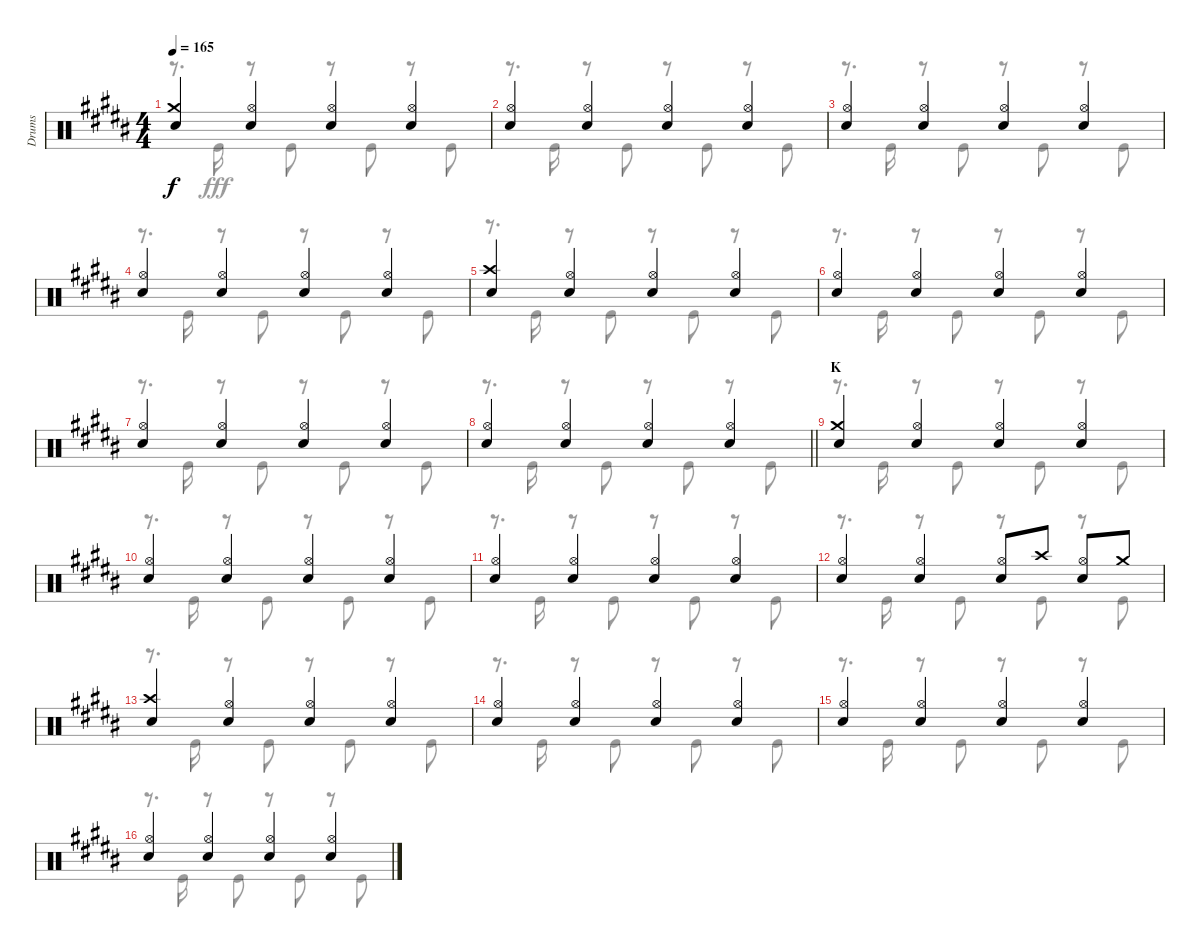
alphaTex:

\track ("Drums" "Drums") {instrument percussion}
\staff {score}
\articulation defaults
\voice
\ts (4 4)
\tempo 165
\clef neutral
\ks b
("Crash medium (hit)" "Snare (hit) 2").4{dy f} ("Hi-Hat (open)" "Snare (hit) 2").4 ("Hi-Hat (open)" "Snare (hit) 2").4 ("Hi-Hat (open)" "Snare (hit) 2").4 |
("Hi-Hat (open)" "Snare (hit) 2").4 ("Hi-Hat (open)" "Snare (hit) 2").4 ("Hi-Hat (open)" "Snare (hit) 2").4 ("Hi-Hat (open)" "Snare (hit) 2").4 |
("Hi-Hat (open)" "Snare (hit) 2").4 ("Hi-Hat (open)" "Snare (hit) 2").4 ("Hi-Hat (open)" "Snare (hit) 2").4 ("Hi-Hat (open)" "Snare (hit) 2").4 |
("Hi-Hat (open)" "Snare (hit) 2").4 ("Hi-Hat (open)" "Snare (hit) 2").4 ("Hi-Hat (open)" "Snare (hit) 2").4 ("Hi-Hat (open)" "Snare (hit) 2").4 |
("Crash high (hit)" "Snare (hit) 2").4 ("Hi-Hat (open)" "Snare (hit) 2").4 ("Hi-Hat (open)" "Snare (hit) 2").4 ("Hi-Hat (open)" "Snare (hit) 2").4 |
("Hi-Hat (open)" "Snare (hit) 2").4 ("Hi-Hat (open)" "Snare (hit) 2").4 ("Hi-Hat (open)" "Snare (hit) 2").4 ("Hi-Hat (open)" "Snare (hit) 2").4 |
("Hi-Hat (open)" "Snare (hit) 2").4 ("Hi-Hat (open)" "Snare (hit) 2").4 ("Hi-Hat (open)" "Snare (hit) 2").4 ("Hi-Hat (open)" "Snare (hit) 2").4 |
\barLineRight lightlight
("Hi-Hat (open)" "Snare (hit) 2").4 ("Hi-Hat (open)" "Snare (hit) 2").4 ("Hi-Hat (open)" "Snare (hit) 2").4 ("Hi-Hat (open)" "Snare (hit) 2").4 |
\section ("" "K")
("Crash medium (hit)" "Snare (hit) 2").4 ("Hi-Hat (open)" "Snare (hit) 2").4 ("Hi-Hat (open)" "Snare (hit) 2").4 ("Hi-Hat (open)" "Snare (hit) 2").4 |
("Hi-Hat (open)" "Snare (hit) 2").4 ("Hi-Hat (open)" "Snare (hit) 2").4 ("Hi-Hat (open)" "Snare (hit) 2").4 ("Hi-Hat (open)" "Snare (hit) 2").4 |
("Hi-Hat (open)" "Snare (hit) 2").4 ("Hi-Hat (open)" "Snare (hit) 2").4 ("Hi-Hat (open)" "Snare (hit) 2").4 ("Hi-Hat (open)" "Snare (hit) 2").4 |
("Hi-Hat (open)" "Snare (hit) 2").4 ("Hi-Hat (open)" "Snare (hit) 2").4 ("Hi-Hat (open)" "Snare (hit) 2").8 "Crash high (hit)".8 ("Hi-Hat (open)" "Snare (hit) 2").8 "Crash medium (hit)".8 |
("Crash high (hit)" "Snare (hit) 2").4 ("Hi-Hat (open)" "Snare (hit) 2").4 ("Hi-Hat (open)" "Snare (hit) 2").4 ("Hi-Hat (open)" "Snare (hit) 2").4 |
("Hi-Hat (open)" "Snare (hit) 2").4 ("Hi-Hat (open)" "Snare (hit) 2").4 ("Hi-Hat (open)" "Snare (hit) 2").4 ("Hi-Hat (open)" "Snare (hit) 2").4 |
("Hi-Hat (open)" "Snare (hit) 2").4 ("Hi-Hat (open)" "Snare (hit) 2").4 ("Hi-Hat (open)" "Snare (hit) 2").4 ("Hi-Hat (open)" "Snare (hit) 2").4 |
("Hi-Hat (open)" "Snare (hit) 2").4 ("Hi-Hat (open)" "Snare (hit) 2").4 ("Hi-Hat (open)" "Snare (hit) 2").4 ("Hi-Hat (open)" "Snare (hit) 2").4
\voice
\clef neutral
\ottava regular
\simile none
\ks b
r.8{d dy fff} "Kick (hit)".16 r.8 "Kick (hit)".8 r.8 "Kick (hit)".8 r.8 "Kick (hit)".8 |
r.8{d} "Kick (hit)".16 r.8 "Kick (hit)".8 r.8 "Kick (hit)".8 r.8 "Kick (hit)".8 |
r.8{d} "Kick (hit)".16 r.8 "Kick (hit)".8 r.8 "Kick (hit)".8 r.8 "Kick (hit)".8 |
r.8{d} "Kick (hit)".16 r.8 "Kick (hit)".8 r.8 "Kick (hit)".8 r.8 "Kick (hit)".8 |
r.8{d} "Kick (hit)".16 r.8 "Kick (hit)".8 r.8 "Kick (hit)".8 r.8 "Kick (hit)".8 |
r.8{d} "Kick (hit)".16 r.8 "Kick (hit)".8 r.8 "Kick (hit)".8 r.8 "Kick (hit)".8 |
r.8{d} "Kick (hit)".16 r.8 "Kick (hit)".8 r.8 "Kick (hit)".8 r.8 "Kick (hit)".8 |
\barLineRight lightlight
r.8{d} "Kick (hit)".16 r.8 "Kick (hit)".8 r.8 "Kick (hit)".8 r.8 "Kick (hit)".8 |
r.8{d} "Kick (hit)".16 r.8 "Kick (hit)".8 r.8 "Kick (hit)".8 r.8 "Kick (hit)".8 |
r.8{d} "Kick (hit)".16 r.8 "Kick (hit)".8 r.8 "Kick (hit)".8 r.8 "Kick (hit)".8 |
r.8{d} "Kick (hit)".16 r.8 "Kick (hit)".8 r.8 "Kick (hit)".8 r.8 "Kick (hit)".8 |
r.8{d} "Kick (hit)".16 r.8 "Kick (hit)".8 r.8 "Kick (hit)".8 r.8 "Kick (hit)".8 |
r.8{d} "Kick (hit)".16 r.8 "Kick (hit)".8 r.8 "Kick (hit)".8 r.8 "Kick (hit)".8 |
r.8{d} "Kick (hit)".16 r.8 "Kick (hit)".8 r.8 "Kick (hit)".8 r.8 "Kick (hit)".8 |
r.8{d} "Kick (hit)".16 r.8 "Kick (hit)".8 r.8 "Kick (hit)".8 r.8 "Kick (hit)".8 |
r.8{d} "Kick (hit)".16 r.8 "Kick (hit)".8 r.8 "Kick (hit)".8 r.8 "Kick (hit)".8
